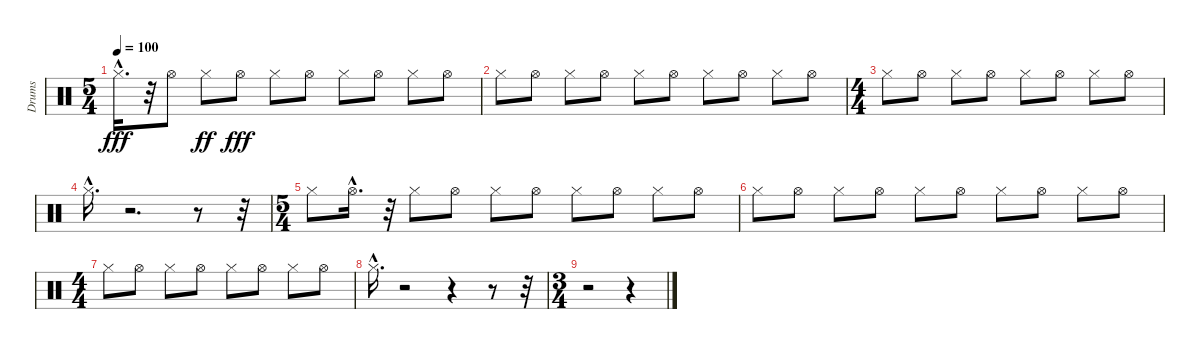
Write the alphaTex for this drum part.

\track ("Drums" "Drums") {instrument percussion}
\staff {score}
\articulation defaults
\ts (5 4)
\tempo 100
\clef neutral
\ks c "Hi-Hat (closed)"{hac}.16{d dy fff}
r.32 "Hi-Hat (open)".8 "Hi-Hat (closed)".8{dy ff} "Hi-Hat (open)".8{dy fff} "Hi-Hat (closed)".8 "Hi-Hat (open)".8 "Hi-Hat (closed)".8 "Hi-Hat (open)".8 "Hi-Hat (closed)".8 "Hi-Hat (open)".8 |
"Hi-Hat (closed)".8 "Hi-Hat (open)".8 "Hi-Hat (closed)".8 "Hi-Hat (open)".8 "Hi-Hat (closed)".8 "Hi-Hat (open)".8 "Hi-Hat (closed)".8 "Hi-Hat (open)".8 "Hi-Hat (closed)".8 "Hi-Hat (open)".8 |
\ts (4 4)
"Hi-Hat (closed)".8 "Hi-Hat (open)".8 "Hi-Hat (closed)".8 "Hi-Hat (open)".8 "Hi-Hat (closed)".8 "Hi-Hat (open)".8 "Hi-Hat (closed)".8 "Hi-Hat (open)".8 |
"Hi-Hat (closed)"{hac}.16{d} r.2{d} r.8 r.32 |
\ts (5 4)
"Hi-Hat (closed)".8 "Hi-Hat (open)"{hac}.16{d} r.32 "Hi-Hat (closed)".8 "Hi-Hat (open)".8 "Hi-Hat (closed)".8 "Hi-Hat (open)".8 "Hi-Hat (closed)".8 "Hi-Hat (open)".8 "Hi-Hat (closed)".8 "Hi-Hat (open)".8 |
"Hi-Hat (closed)".8 "Hi-Hat (open)".8 "Hi-Hat (closed)".8 "Hi-Hat (open)".8 "Hi-Hat (closed)".8 "Hi-Hat (open)".8 "Hi-Hat (closed)".8 "Hi-Hat (open)".8 "Hi-Hat (closed)".8 "Hi-Hat (open)".8 |
\ts (4 4)
"Hi-Hat (closed)".8 "Hi-Hat (open)".8 "Hi-Hat (closed)".8 "Hi-Hat (open)".8 "Hi-Hat (closed)".8 "Hi-Hat (open)".8 "Hi-Hat (closed)".8 "Hi-Hat (open)".8 |
"Hi-Hat (closed)"{hac}.16{d} r.2 r.4 r.8 r.32 |
\ts (3 4)
r.2 r.4
